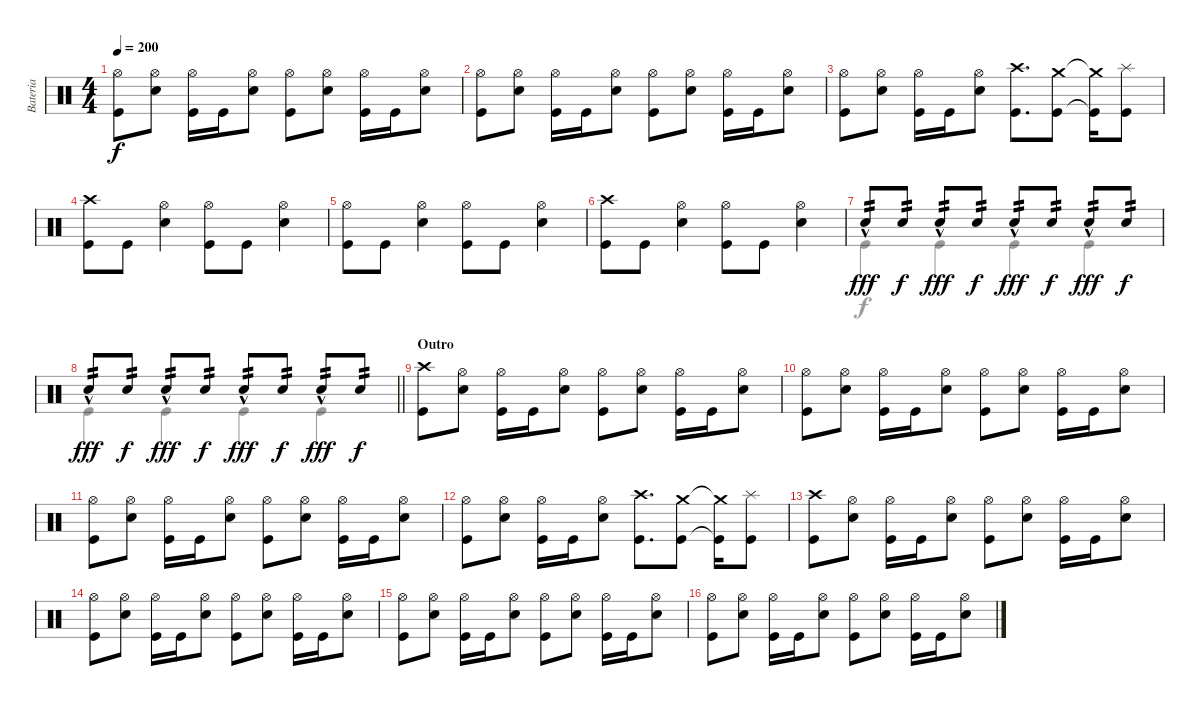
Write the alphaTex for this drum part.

\track ("Bateria" "Bateria") {instrument percussion}
\staff {score}
\articulation defaults
\voice
\ts (4 4)
\tempo 200
\clef neutral
\ks c
("Hi-Hat (open)" "Kick (hit)").8{dy f} ("Hi-Hat (open)" "Snare (hit) 2").8 ("Hi-Hat (open)" "Kick (hit)").16 "Kick (hit)".16 ("Hi-Hat (open)" "Snare (hit) 2").8 ("Hi-Hat (open)" "Kick (hit)").8 ("Hi-Hat (open)" "Snare (hit) 2").8 ("Hi-Hat (open)" "Kick (hit)").16 "Kick (hit)".16 ("Hi-Hat (open)" "Snare (hit) 2").8 |
("Hi-Hat (open)" "Kick (hit)").8 ("Hi-Hat (open)" "Snare (hit) 2").8 ("Hi-Hat (open)" "Kick (hit)").16 "Kick (hit)".16 ("Hi-Hat (open)" "Snare (hit) 2").8 ("Hi-Hat (open)" "Kick (hit)").8 ("Hi-Hat (open)" "Snare (hit) 2").8 ("Hi-Hat (open)" "Kick (hit)").16 "Kick (hit)".16 ("Hi-Hat (open)" "Snare (hit) 2").8 |
("Hi-Hat (open)" "Kick (hit)").8 ("Hi-Hat (open)" "Snare (hit) 2").8 ("Hi-Hat (open)" "Kick (hit)").16 "Kick (hit)".16 ("Hi-Hat (open)" "Snare (hit) 2").8 ("Crash high (hit)" "Kick (hit)").8{d} ("Crash medium (hit)" "Kick (hit)").8 ("Crash medium (hit)"{t} "Kick (hit)"{t}).16 ("Splash (hit)" "Kick (hit)").8 |
("Crash high (hit)" "Kick (hit)").8 "Kick (hit)".8 ("Hi-Hat (open)" "Snare (hit) 2").4 ("Hi-Hat (open)" "Kick (hit)").8 "Kick (hit)".8 ("Hi-Hat (open)" "Snare (hit) 2").4 |
("Hi-Hat (open)" "Kick (hit)").8 "Kick (hit)".8 ("Hi-Hat (open)" "Snare (hit) 2").4 ("Hi-Hat (open)" "Kick (hit)").8 "Kick (hit)".8 ("Hi-Hat (open)" "Snare (hit) 2").4 |
("Crash high (hit)" "Kick (hit)").8 "Kick (hit)".8 ("Hi-Hat (open)" "Snare (hit) 2").4 ("Hi-Hat (open)" "Kick (hit)").8 "Kick (hit)".8 ("Hi-Hat (open)" "Snare (hit) 2").4 |
"Snare (hit) 2"{hac}.8{tp 2 dy fff} "Snare (hit) 2".8{tp 2 dy f} "Snare (hit) 2"{hac}.8{tp 2 dy fff} "Snare (hit) 2".8{tp 2 dy f} "Snare (hit) 2"{hac}.8{tp 2 dy fff} "Snare (hit) 2".8{tp 2 dy f} "Snare (hit) 2"{hac}.8{tp 2 dy fff} "Snare (hit) 2".8{tp 2 dy f} |
\barLineRight lightlight "Snare (hit) 2"{hac}.8{tp 2 dy fff} "Snare (hit) 2".8{tp 2 dy f} "Snare (hit) 2"{hac}.8{tp 2 dy fff} "Snare (hit) 2".8{tp 2 dy f} "Snare (hit) 2"{hac}.8{tp 2 dy fff} "Snare (hit) 2".8{tp 2 dy f} "Snare (hit) 2"{hac}.8{tp 2 dy fff} "Snare (hit) 2".8{tp 2 dy f}
|
\section ("" "Outro")
("Crash high (hit)" "Kick (hit)").8 ("Hi-Hat (open)" "Snare (hit) 2").8 ("Hi-Hat (open)" "Kick (hit)").16 "Kick (hit)".16 ("Hi-Hat (open)" "Snare (hit) 2").8 ("Hi-Hat (open)" "Kick (hit)").8 ("Hi-Hat (open)" "Snare (hit) 2").8 ("Hi-Hat (open)" "Kick (hit)").16 "Kick (hit)".16 ("Hi-Hat (open)" "Snare (hit) 2").8 |
("Hi-Hat (open)" "Kick (hit)").8 ("Hi-Hat (open)" "Snare (hit) 2").8 ("Hi-Hat (open)" "Kick (hit)").16 "Kick (hit)".16 ("Hi-Hat (open)" "Snare (hit) 2").8 ("Hi-Hat (open)" "Kick (hit)").8 ("Hi-Hat (open)" "Snare (hit) 2").8 ("Hi-Hat (open)" "Kick (hit)").16 "Kick (hit)".16 ("Hi-Hat (open)" "Snare (hit) 2").8 |
("Hi-Hat (open)" "Kick (hit)").8 ("Hi-Hat (open)" "Snare (hit) 2").8 ("Hi-Hat (open)" "Kick (hit)").16 "Kick (hit)".16 ("Hi-Hat (open)" "Snare (hit) 2").8 ("Hi-Hat (open)" "Kick (hit)").8 ("Hi-Hat (open)" "Snare (hit) 2").8 ("Hi-Hat (open)" "Kick (hit)").16 "Kick (hit)".16 ("Hi-Hat (open)" "Snare (hit) 2").8 |
("Hi-Hat (open)" "Kick (hit)").8 ("Hi-Hat (open)" "Snare (hit) 2").8 ("Hi-Hat (open)" "Kick (hit)").16 "Kick (hit)".16 ("Hi-Hat (open)" "Snare (hit) 2").8 ("Crash high (hit)" "Kick (hit)").8{d} ("Crash medium (hit)" "Kick (hit)").8 ("Crash medium (hit)"{t} "Kick (hit)"{t}).16 ("Splash (hit)" "Kick (hit)").8 |
("Crash high (hit)" "Kick (hit)").8 ("Hi-Hat (open)" "Snare (hit) 2").8 ("Hi-Hat (open)" "Kick (hit)").16 "Kick (hit)".16 ("Hi-Hat (open)" "Snare (hit) 2").8 ("Hi-Hat (open)" "Kick (hit)").8 ("Hi-Hat (open)" "Snare (hit) 2").8 ("Hi-Hat (open)" "Kick (hit)").16 "Kick (hit)".16 ("Hi-Hat (open)" "Snare (hit) 2").8 |
("Hi-Hat (open)" "Kick (hit)").8 ("Hi-Hat (open)" "Snare (hit) 2").8 ("Hi-Hat (open)" "Kick (hit)").16 "Kick (hit)".16 ("Hi-Hat (open)" "Snare (hit) 2").8 ("Hi-Hat (open)" "Kick (hit)").8 ("Hi-Hat (open)" "Snare (hit) 2").8 ("Hi-Hat (open)" "Kick (hit)").16 "Kick (hit)".16 ("Hi-Hat (open)" "Snare (hit) 2").8 |
("Hi-Hat (open)" "Kick (hit)").8 ("Hi-Hat (open)" "Snare (hit) 2").8 ("Hi-Hat (open)" "Kick (hit)").16 "Kick (hit)".16 ("Hi-Hat (open)" "Snare (hit) 2").8 ("Hi-Hat (open)" "Kick (hit)").8 ("Hi-Hat (open)" "Snare (hit) 2").8 ("Hi-Hat (open)" "Kick (hit)").16 "Kick (hit)".16 ("Hi-Hat (open)" "Snare (hit) 2").8 |
("Hi-Hat (open)" "Kick (hit)").8 ("Hi-Hat (open)" "Snare (hit) 2").8 ("Hi-Hat (open)" "Kick (hit)").16 "Kick (hit)".16 ("Hi-Hat (open)" "Snare (hit) 2").8 ("Hi-Hat (open)" "Kick (hit)").8 ("Hi-Hat (open)" "Snare (hit) 2").8 ("Hi-Hat (open)" "Kick (hit)").16 "Kick (hit)".16 ("Hi-Hat (open)" "Snare (hit) 2").8
\voice
\clef neutral
\ottava regular
\simile none
\ks c
|
|
|
|
|
|
"Kick (hit)".4 "Kick (hit)".4 "Kick (hit)".4 "Kick (hit)".4 |
\barLineRight lightlight "Kick (hit)".4 "Kick (hit)".4 "Kick (hit)".4 "Kick (hit)".4
|
|
|
|
|
|
|
|
